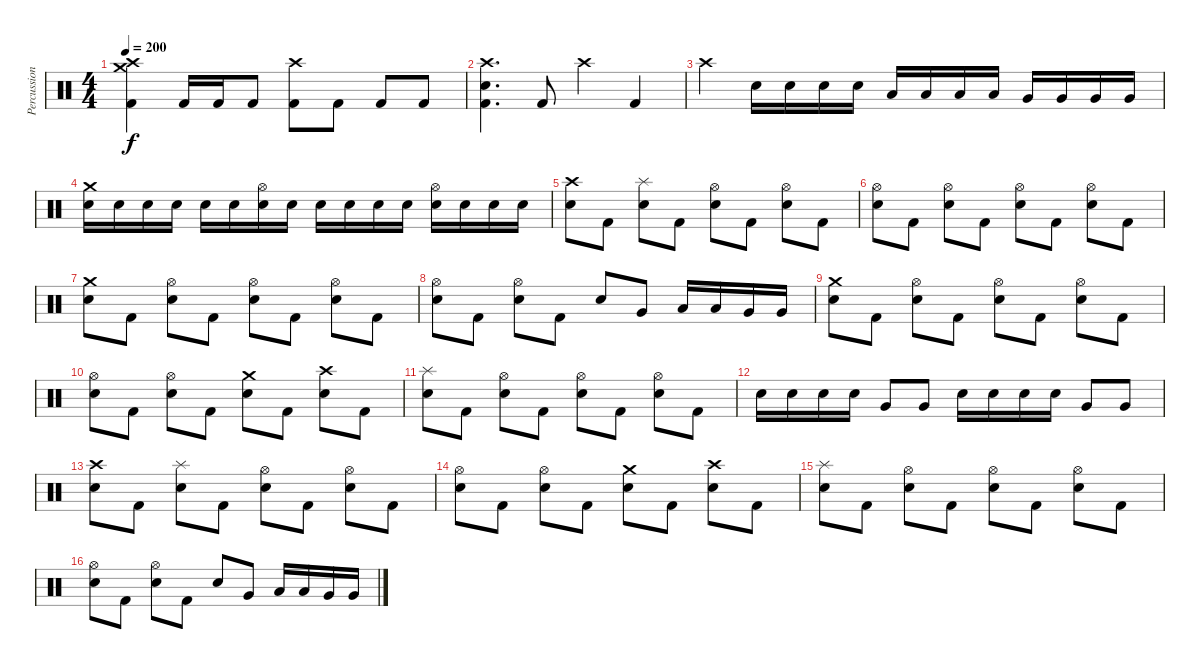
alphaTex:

\track ("Percussions" "Percussion") {instrument percussion}
\staff {score}
\articulation defaults
\ts (4 4)
\tempo 200
\clef neutral
\ks c
("Crash medium (hit)" "Crash high (hit)" "Kick (hit) 2").4{dy f} "Kick (hit) 2".16 "Kick (hit) 2".16 "Kick (hit) 2".8 ("Crash high (hit)" "Kick (hit) 2").8 "Kick (hit) 2".8 "Kick (hit) 2".8 "Kick (hit) 2".8 |
("Crash high (hit)" "Electric Snare (hit)" "Kick (hit) 2").4{d} "Kick (hit) 2".8 "Crash high (hit)".4 "Kick (hit) 2".4 |
"Crash high (hit)".4 "Electric Snare (hit)".16 "Electric Snare (hit)".16 "Electric Snare (hit)".16 "Electric Snare (hit)".16 "Low Tom (hit)".16 "Low Tom (hit)".16 "Low Tom (hit)".16 "Low Tom (hit)".16 "Very Low Tom (hit)".16 "Very Low Tom (hit)".16 "Very Low Tom (hit)".16 "Very Low Tom (hit)".16 |
("Crash medium (hit)" "Electric Snare (hit)").16 "Electric Snare (hit)".16 "Electric Snare (hit)".16 "Electric Snare (hit)".16 "Electric Snare (hit)".16 "Electric Snare (hit)".16 ("Hi-Hat (open)" "Electric Snare (hit)").16 "Electric Snare (hit)".16 "Electric Snare (hit)".16 "Electric Snare (hit)".16 "Electric Snare (hit)".16 "Electric Snare (hit)".16 ("Hi-Hat (open)" "Electric Snare (hit)").16 "Electric Snare (hit)".16 "Electric Snare (hit)".16 "Electric Snare (hit)".16 |
("Crash high (hit)" "Electric Snare (hit)").8 "Kick (hit) 2".8 ("Splash (hit)" "Electric Snare (hit)").8 "Kick (hit) 2".8 ("Hi-Hat (open)" "Electric Snare (hit)").8 "Kick (hit) 2".8 ("Hi-Hat (open)" "Electric Snare (hit)").8 "Kick (hit) 2".8 |
("Hi-Hat (open)" "Electric Snare (hit)").8 "Kick (hit) 2".8 ("Hi-Hat (open)" "Electric Snare (hit)").8 "Kick (hit) 2".8 ("Hi-Hat (open)" "Electric Snare (hit)").8 "Kick (hit) 2".8 ("Hi-Hat (open)" "Electric Snare (hit)").8 "Kick (hit) 2".8 |
("Crash medium (hit)" "Electric Snare (hit)").8 "Kick (hit) 2".8 ("Hi-Hat (open)" "Electric Snare (hit)").8 "Kick (hit) 2".8 ("Hi-Hat (open)" "Electric Snare (hit)").8 "Kick (hit) 2".8 ("Hi-Hat (open)" "Electric Snare (hit)").8 "Kick (hit) 2".8 |
("Hi-Hat (open)" "Electric Snare (hit)").8 "Kick (hit) 2".8 ("Hi-Hat (open)" "Electric Snare (hit)").8 "Kick (hit) 2".8 "Electric Snare (hit)".8 "Very Low Tom (hit)".8 "Low Tom (hit)".16 "Low Tom (hit)".16 "Very Low Tom (hit)".16 "Very Low Tom (hit)".16 |
("Crash medium (hit)" "Electric Snare (hit)").8 "Kick (hit) 2".8 ("Hi-Hat (open)" "Electric Snare (hit)").8 "Kick (hit) 2".8 ("Hi-Hat (open)" "Electric Snare (hit)").8 "Kick (hit) 2".8 ("Hi-Hat (open)" "Electric Snare (hit)").8 "Kick (hit) 2".8 |
("Hi-Hat (open)" "Electric Snare (hit)").8 "Kick (hit) 2".8 ("Hi-Hat (open)" "Electric Snare (hit)").8 "Kick (hit) 2".8 ("Crash medium (hit)" "Electric Snare (hit)").8 "Kick (hit) 2".8 ("Crash high (hit)" "Electric Snare (hit)").8 "Kick (hit) 2".8 |
("Splash (hit)" "Electric Snare (hit)").8 "Kick (hit) 2".8 ("Hi-Hat (open)" "Electric Snare (hit)").8 "Kick (hit) 2".8 ("Hi-Hat (open)" "Electric Snare (hit)").8 "Kick (hit) 2".8 ("Hi-Hat (open)" "Electric Snare (hit)").8 "Kick (hit) 2".8 |
"Electric Snare (hit)".16 "Electric Snare (hit)".16 "Electric Snare (hit)".16 "Electric Snare (hit)".16 "Very Low Tom (hit)".8 "Very Low Tom (hit)".8 "Electric Snare (hit)".16 "Electric Snare (hit)".16 "Electric Snare (hit)".16 "Electric Snare (hit)".16 "Very Low Tom (hit)".8 "Very Low Tom (hit)".8 |
("Crash high (hit)" "Electric Snare (hit)").8 "Kick (hit) 2".8 ("Splash (hit)" "Electric Snare (hit)").8 "Kick (hit) 2".8 ("Hi-Hat (open)" "Electric Snare (hit)").8 "Kick (hit) 2".8 ("Hi-Hat (open)" "Electric Snare (hit)").8 "Kick (hit) 2".8 |
("Hi-Hat (open)" "Electric Snare (hit)").8 "Kick (hit) 2".8 ("Hi-Hat (open)" "Electric Snare (hit)").8 "Kick (hit) 2".8 ("Crash medium (hit)" "Electric Snare (hit)").8 "Kick (hit) 2".8 ("Crash high (hit)" "Electric Snare (hit)").8 "Kick (hit) 2".8 |
("Splash (hit)" "Electric Snare (hit)").8 "Kick (hit) 2".8 ("Hi-Hat (open)" "Electric Snare (hit)").8 "Kick (hit) 2".8 ("Hi-Hat (open)" "Electric Snare (hit)").8 "Kick (hit) 2".8 ("Hi-Hat (open)" "Electric Snare (hit)").8 "Kick (hit) 2".8 |
("Hi-Hat (open)" "Electric Snare (hit)").8 "Kick (hit) 2".8 ("Hi-Hat (open)" "Electric Snare (hit)").8 "Kick (hit) 2".8 "Electric Snare (hit)".8 "Very Low Tom (hit)".8 "Low Tom (hit)".16 "Low Tom (hit)".16 "Very Low Tom (hit)".16 "Very Low Tom (hit)".16
